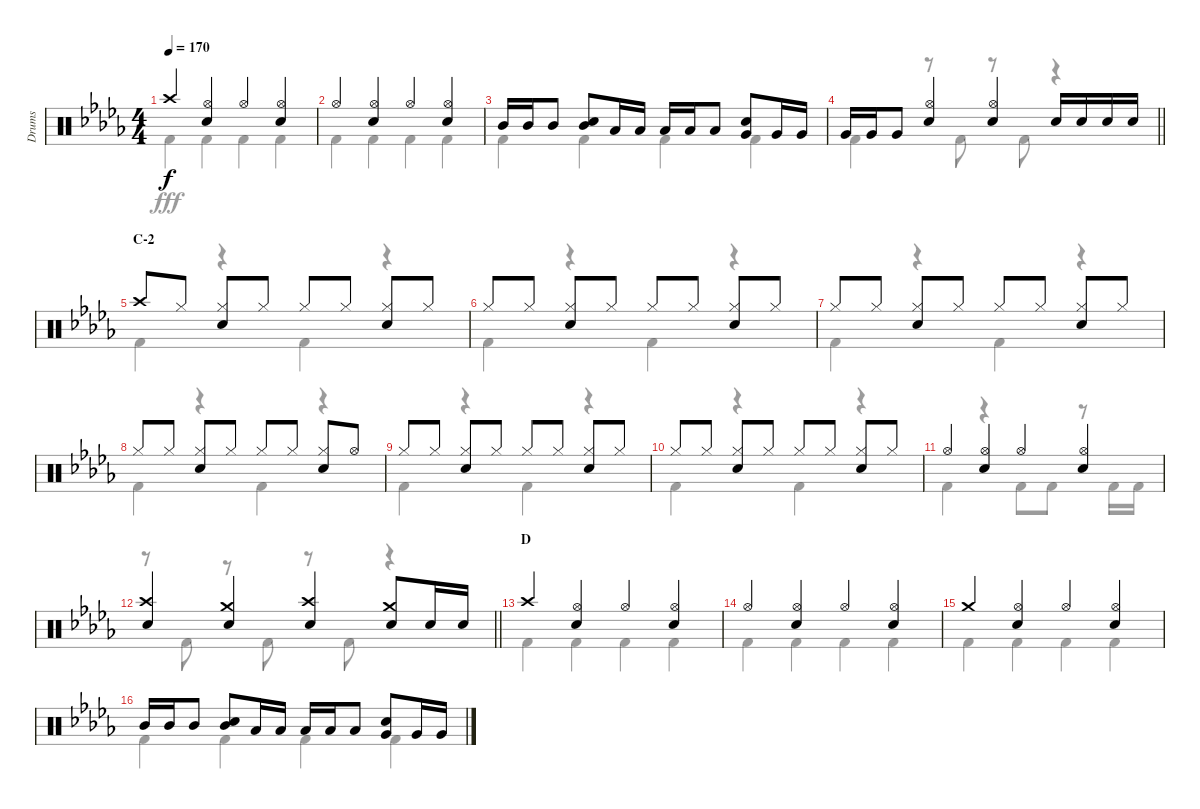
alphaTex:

\track ("Drums" "Drums") {instrument percussion}
\staff {score}
\articulation defaults
\voice
\ts (4 4)
\tempo 170
\clef neutral
\ks db "Crash high (hit)".4{dy f}
("Hi-Hat (open)" "Snare (hit) 2").4 "Hi-Hat (open)".4 ("Hi-Hat (open)" "Snare (hit) 2").4 |
"Hi-Hat (open)".4 ("Hi-Hat (open)" "Snare (hit) 2").4 "Hi-Hat (open)".4 ("Hi-Hat (open)" "Snare (hit) 2").4 |
"Mid Tom (hit)".16 "Mid Tom (hit)".16 "Mid Tom (hit)".8 ("Mid Tom (hit)" "Snare (hit) 2").8 "Low Tom (hit)".16 "Low Tom (hit)".16 "Low Tom (hit)".16 "Low Tom (hit)".16 "Low Tom (hit)".8 ("Snare (hit) 2" "Very Low Tom (hit)").8 "Very Low Tom (hit)".16 "Very Low Tom (hit)".16 |
\barLineRight lightlight "Very Low Tom (hit)".16 "Very Low Tom (hit)".16 "Very Low Tom (hit)".8
("Hi-Hat (open)" "Snare (hit) 2").4 ("Hi-Hat (open)" "Snare (hit) 2").4 "Snare (hit) 2".16 "Snare (hit) 2".16 "Snare (hit) 2".16 "Snare (hit) 2".16 |
\section ("" "C-2")
"Crash high (hit)".8 "Hi-Hat (closed)".8 ("Hi-Hat (closed)" "Snare (hit) 2").8 "Hi-Hat (closed)".8 "Hi-Hat (closed)".8 "Hi-Hat (closed)".8 ("Hi-Hat (closed)" "Snare (hit) 2").8 "Hi-Hat (closed)".8 |
"Hi-Hat (closed)".8 "Hi-Hat (closed)".8 ("Hi-Hat (closed)" "Snare (hit) 2").8 "Hi-Hat (closed)".8 "Hi-Hat (closed)".8 "Hi-Hat (closed)".8 ("Hi-Hat (closed)" "Snare (hit) 2").8 "Hi-Hat (closed)".8 |
"Hi-Hat (closed)".8 "Hi-Hat (closed)".8 ("Hi-Hat (closed)" "Snare (hit) 2").8 "Hi-Hat (closed)".8 "Hi-Hat (closed)".8 "Hi-Hat (closed)".8 ("Hi-Hat (closed)" "Snare (hit) 2").8 "Hi-Hat (closed)".8 |
"Hi-Hat (closed)".8 "Hi-Hat (closed)".8 ("Hi-Hat (closed)" "Snare (hit) 2").8 "Hi-Hat (closed)".8 "Hi-Hat (closed)".8 "Hi-Hat (closed)".8 ("Hi-Hat (closed)" "Snare (hit) 2").8 "Hi-Hat (open)".8 |
"Hi-Hat (closed)".8 "Hi-Hat (closed)".8 ("Hi-Hat (closed)" "Snare (hit) 2").8 "Hi-Hat (closed)".8 "Hi-Hat (closed)".8 "Hi-Hat (closed)".8 ("Hi-Hat (closed)" "Snare (hit) 2").8 "Hi-Hat (closed)".8 |
"Hi-Hat (closed)".8 "Hi-Hat (closed)".8 ("Hi-Hat (closed)" "Snare (hit) 2").8 "Hi-Hat (closed)".8 "Hi-Hat (closed)".8 "Hi-Hat (closed)".8 ("Hi-Hat (closed)" "Snare (hit) 2").8 "Hi-Hat (closed)".8 |
"Hi-Hat (open)".4 ("Hi-Hat (open)" "Snare (hit) 2").4 "Hi-Hat (open)".4 ("Hi-Hat (open)" "Snare (hit) 2").4 |
\barLineRight lightlight
("Crash high (hit)" "Snare (hit) 2").4 ("Crash medium (hit)" "Snare (hit) 2").4 ("Crash high (hit)" "Snare (hit) 2").4 ("Crash medium (hit)" "Snare (hit) 2").8 "Snare (hit) 2".16 "Snare (hit) 2".16 |
\section ("" "D")
"Crash high (hit)".4 ("Hi-Hat (open)" "Snare (hit) 2").4 "Hi-Hat (open)".4 ("Hi-Hat (open)" "Snare (hit) 2").4 |
"Hi-Hat (open)".4 ("Hi-Hat (open)" "Snare (hit) 2").4 "Hi-Hat (open)".4 ("Hi-Hat (open)" "Snare (hit) 2").4 |
"Crash medium (hit)".4 ("Hi-Hat (open)" "Snare (hit) 2").4 "Hi-Hat (open)".4 ("Hi-Hat (open)" "Snare (hit) 2").4 |
"Mid Tom (hit)".16 "Mid Tom (hit)".16 "Mid Tom (hit)".8 ("Mid Tom (hit)" "Snare (hit) 2").8 "Low Tom (hit)".16 "Low Tom (hit)".16 "Low Tom (hit)".16 "Low Tom (hit)".16 "Low Tom (hit)".8 ("Snare (hit) 2" "Very Low Tom (hit)").8 "Very Low Tom (hit)".16 "Very Low Tom (hit)".16
\voice
\clef neutral
\ottava regular
\simile none
\ks db "Kick (hit) 2".4{dy fff} "Kick (hit) 2".4 "Kick (hit) 2".4 "Kick (hit) 2".4
|
"Kick (hit) 2".4 "Kick (hit) 2".4 "Kick (hit) 2".4 "Kick (hit) 2".4 |
"Kick (hit) 2".4 "Kick (hit) 2".4 "Kick (hit) 2".4 "Kick (hit) 2".4 |
\barLineRight lightlight "Kick (hit) 2".4
r.8 "Kick (hit) 2".8 r.8 "Kick (hit) 2".8 r.4 |
"Kick (hit) 2".4 r.4 "Kick (hit) 2".4 r.4 |
"Kick (hit) 2".4 r.4 "Kick (hit) 2".4 r.4 |
"Kick (hit) 2".4 r.4 "Kick (hit) 2".4 r.4 |
"Kick (hit) 2".4 r.4 "Kick (hit) 2".4 r.4 |
"Kick (hit) 2".4 r.4 "Kick (hit) 2".4 r.4 |
"Kick (hit) 2".4 r.4 "Kick (hit) 2".4 r.4 |
"Kick (hit) 2".4 r.4 "Kick (hit) 2".8 "Kick (hit) 2".8 r.8 "Kick (hit) 2".16 "Kick (hit) 2".16 |
\barLineRight lightlight
r.8 "Kick (hit) 2".8 r.8 "Kick (hit) 2".8 r.8 "Kick (hit) 2".8 r.4 |
"Kick (hit) 2".4 "Kick (hit) 2".4 "Kick (hit) 2".4 "Kick (hit) 2".4 |
"Kick (hit) 2".4 "Kick (hit) 2".4 "Kick (hit) 2".4 "Kick (hit) 2".4 |
"Kick (hit) 2".4 "Kick (hit) 2".4 "Kick (hit) 2".4 "Kick (hit) 2".4 |
"Kick (hit) 2".4 "Kick (hit) 2".4 "Kick (hit) 2".4 "Kick (hit) 2".4
